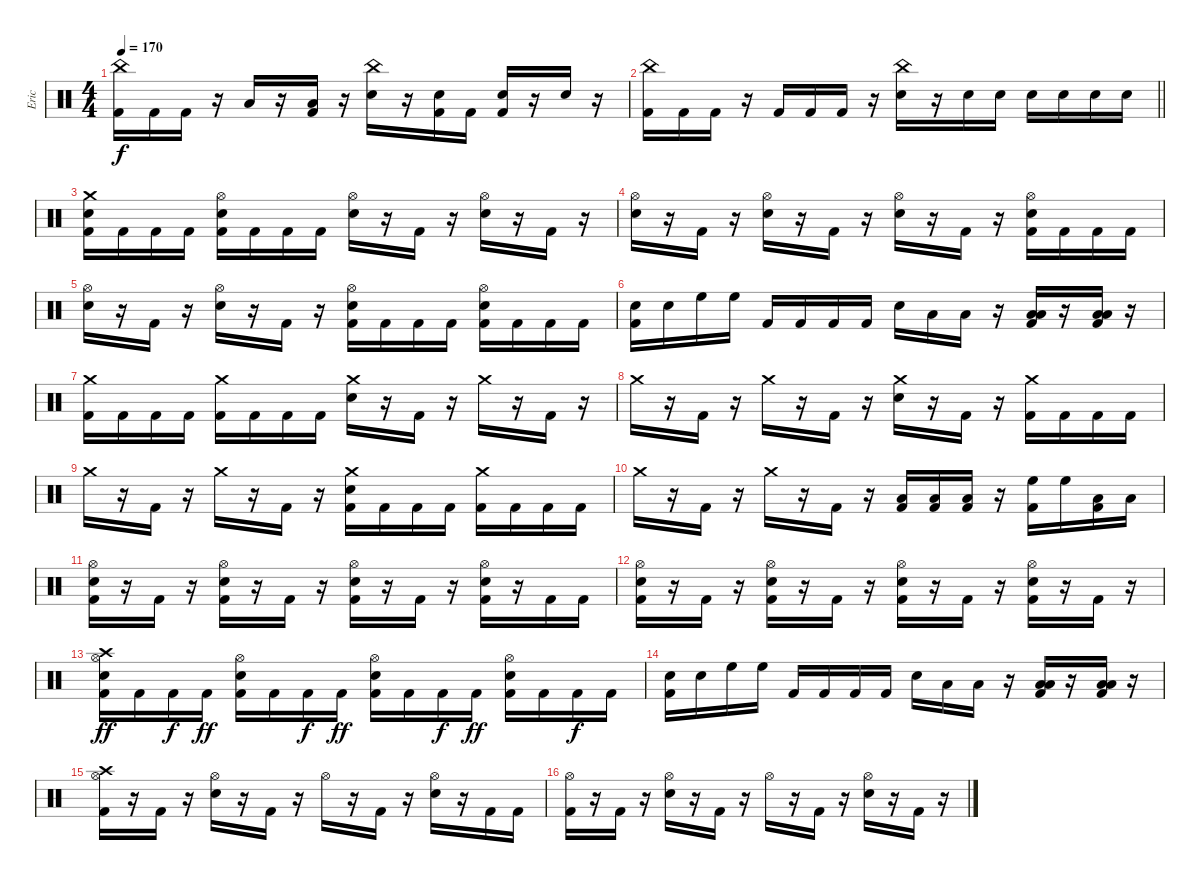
\track ("Eric" "Eric") {instrument percussion}
\staff {score}
\articulation defaults
\ts (4 4)
\tempo 170
\clef neutral
\ks c
("China (hit)" "Kick (hit) 2").16{dy f} "Kick (hit) 2".16 "Kick (hit) 2".16 r.16 "Low Tom (hit)".16 r.16 ("Low Floor Tom (hit)" "Kick (hit) 2").16 r.16 ("China (hit)" "Electric Snare (hit)").16 r.16 ("Electric Snare (hit)" "Kick (hit) 2").16 "Kick (hit) 2".16 ("Electric Snare (hit)" "Kick (hit) 2").16 r.16 "Electric Snare (hit)".16 r.16 |
\barLineRight lightlight
("China (hit)" "Kick (hit) 2").16 "Kick (hit) 2".16 "Kick (hit) 2".16 r.16 "Kick (hit) 2".16 "Kick (hit) 2".16 "Kick (hit) 2".16 r.16 ("China (hit)" "Electric Snare (hit)").16 r.16 "Electric Snare (hit)".16 "Electric Snare (hit)".16 "Electric Snare (hit)".16 "Electric Snare (hit)".16 "Electric Snare (hit)".16 "Electric Snare (hit)".16 |
("Crash medium (hit)" "Electric Snare (hit)" "Kick (hit) 2").16 "Kick (hit) 2".16 "Kick (hit) 2".16 "Kick (hit) 2".16 ("Hi-Hat (open)" "Electric Snare (hit)" "Kick (hit) 2").16 "Kick (hit) 2".16 "Kick (hit) 2".16 "Kick (hit) 2".16 ("Hi-Hat (open)" "Electric Snare (hit)").16 r.16 "Kick (hit) 2".16 r.16 ("Hi-Hat (open)" "Electric Snare (hit)").16 r.16 "Kick (hit) 2".16 r.16 |
("Hi-Hat (open)" "Electric Snare (hit)").16 r.16 "Kick (hit) 2".16 r.16 ("Hi-Hat (open)" "Electric Snare (hit)").16 r.16 "Kick (hit) 2".16 r.16 ("Hi-Hat (open)" "Electric Snare (hit)").16 r.16 "Kick (hit) 2".16 r.16 ("Hi-Hat (open)" "Electric Snare (hit)" "Kick (hit) 2").16 "Kick (hit) 2".16 "Kick (hit) 2".16 "Kick (hit) 2".16 |
("Hi-Hat (open)" "Electric Snare (hit)").16 r.16 "Kick (hit) 2".16 r.16 ("Hi-Hat (open)" "Electric Snare (hit)").16 r.16 "Kick (hit) 2".16 r.16 ("Hi-Hat (open)" "Electric Snare (hit)" "Kick (hit) 2").16 "Kick (hit) 2".16 "Kick (hit) 2".16 "Kick (hit) 2".16 ("Hi-Hat (open)" "Electric Snare (hit)" "Kick (hit) 2").16 "Kick (hit) 2".16 "Kick (hit) 2".16 "Kick (hit) 2".16 |
("Electric Snare (hit)" "Kick (hit) 2").16 "Electric Snare (hit)".16 "High Floor Tom (hit)".16 "High Floor Tom (hit)".16 "Kick (hit) 2".16 "Kick (hit) 2".16 "Kick (hit) 2".16 "Kick (hit) 2".16 "Electric Snare (hit)".16 "Low Tom (hit)".16 "Low Floor Tom (hit)".16 r.16 ("Low Tom (hit)" "Low Floor Tom (hit)" "Kick (hit) 2").16 r.16 ("Low Tom (hit)" "Low Floor Tom (hit)" "Kick (hit) 2").16 r.16 |
("Crash medium (hit)" "Kick (hit) 2").16 "Kick (hit) 2".16 "Kick (hit) 2".16 "Kick (hit) 2".16 ("Crash medium (hit)" "Kick (hit) 2").16 "Kick (hit) 2".16 "Kick (hit) 2".16 "Kick (hit) 2".16 ("Crash medium (hit)" "Electric Snare (hit)").16 r.16 "Kick (hit) 2".16 r.16 "Crash medium (hit)".16 r.16 "Kick (hit) 2".16 r.16 |
"Crash medium (hit)".16 r.16 "Kick (hit) 2".16 r.16 "Crash medium (hit)".16 r.16 "Kick (hit) 2".16 r.16 ("Crash medium (hit)" "Electric Snare (hit)").16 r.16 "Kick (hit) 2".16 r.16 ("Crash medium (hit)" "Kick (hit) 2").16 "Kick (hit) 2".16 "Kick (hit) 2".16 "Kick (hit) 2".16 |
"Crash medium (hit)".16 r.16 "Kick (hit) 2".16 r.16 "Crash medium (hit)".16 r.16 "Kick (hit) 2".16 r.16 ("Crash medium (hit)" "Electric Snare (hit)" "Kick (hit) 2").16 "Kick (hit) 2".16 "Kick (hit) 2".16 "Kick (hit) 2".16 ("Crash medium (hit)" "Kick (hit) 2").16 "Kick (hit) 2".16 "Kick (hit) 2".16 "Kick (hit) 2".16 |
"Crash medium (hit)".16 r.16 "Kick (hit) 2".16 r.16 "Crash medium (hit)".16 r.16 "Kick (hit) 2".16 r.16 ("Low Floor Tom (hit)" "Kick (hit) 2").16 ("Low Floor Tom (hit)" "Kick (hit) 2").16 ("Low Floor Tom (hit)" "Kick (hit) 2").16 r.16 ("High Floor Tom (hit)" "Kick (hit) 2").16 "High Floor Tom (hit)".16 ("Low Tom (hit)" "Kick (hit) 2").16 "Low Tom (hit)".16 |
("Hi-Hat (open)" "Electric Snare (hit)" "Kick (hit) 2").16 r.16 "Kick (hit) 2".16 r.16 ("Hi-Hat (open)" "Electric Snare (hit)" "Kick (hit) 2").16 r.16 "Kick (hit) 2".16 r.16 ("Hi-Hat (open)" "Electric Snare (hit)" "Kick (hit) 2").16 r.16 "Kick (hit) 2".16 r.16 ("Hi-Hat (open)" "Electric Snare (hit)" "Kick (hit) 2").16 r.16 "Kick (hit) 2".16 "Kick (hit) 2".16 |
("Hi-Hat (open)" "Electric Snare (hit)" "Kick (hit) 2").16 r.16 "Kick (hit) 2".16 r.16 ("Hi-Hat (open)" "Electric Snare (hit)" "Kick (hit) 2").16 r.16 "Kick (hit) 2".16 r.16 ("Hi-Hat (open)" "Electric Snare (hit)" "Kick (hit) 2").16 r.16 "Kick (hit) 2".16 r.16 ("Hi-Hat (open)" "Electric Snare (hit)" "Kick (hit) 2").16 r.16 "Kick (hit) 2".16 r.16 |
("Crash high (hit)" "Hi-Hat (open)" "Electric Snare (hit)" "Kick (hit) 2").16{dy ff} "Kick (hit) 2".16 "Kick (hit) 2".16{dy f} "Kick (hit) 2".16{dy ff} ("Hi-Hat (open)" "Electric Snare (hit)" "Kick (hit) 2").16 "Kick (hit) 2".16 "Kick (hit) 2".16{dy f} "Kick (hit) 2".16{dy ff} ("Hi-Hat (open)" "Electric Snare (hit)" "Kick (hit) 2").16 "Kick (hit) 2".16 "Kick (hit) 2".16{dy f} "Kick (hit) 2".16{dy ff} ("Hi-Hat (open)" "Electric Snare (hit)" "Kick (hit) 2").16 "Kick (hit) 2".16 "Kick (hit) 2".16{dy f} "Kick (hit) 2".16 |
("Electric Snare (hit)" "Kick (hit) 2").16 "Electric Snare (hit)".16 "High Floor Tom (hit)".16 "High Floor Tom (hit)".16 "Kick (hit) 2".16 "Kick (hit) 2".16 "Kick (hit) 2".16 "Kick (hit) 2".16 "Electric Snare (hit)".16 "Low Tom (hit)".16 "Low Floor Tom (hit)".16 r.16 ("Low Tom (hit)" "Low Floor Tom (hit)" "Kick (hit) 2").16 r.16 ("Low Tom (hit)" "Low Floor Tom (hit)" "Kick (hit) 2").16 r.16 |
("Hi-Hat (open)" "Crash high (hit)" "Kick (hit) 2").16 r.16 "Kick (hit) 2".16 r.16 ("Hi-Hat (open)" "Electric Snare (hit)").16 r.16 "Kick (hit) 2".16 r.16 "Hi-Hat (open)".16 r.16 "Kick (hit) 2".16 r.16 ("Hi-Hat (open)" "Electric Snare (hit)").16 r.16 "Kick (hit) 2".16 "Kick (hit) 2".16 |
("Hi-Hat (open)" "Kick (hit) 2").16 r.16 "Kick (hit) 2".16 r.16 ("Hi-Hat (open)" "Electric Snare (hit)").16 r.16 "Kick (hit) 2".16 r.16 "Hi-Hat (open)".16 r.16 "Kick (hit) 2".16 r.16 ("Hi-Hat (open)" "Electric Snare (hit)").16 r.16 "Kick (hit) 2".16 r.16
